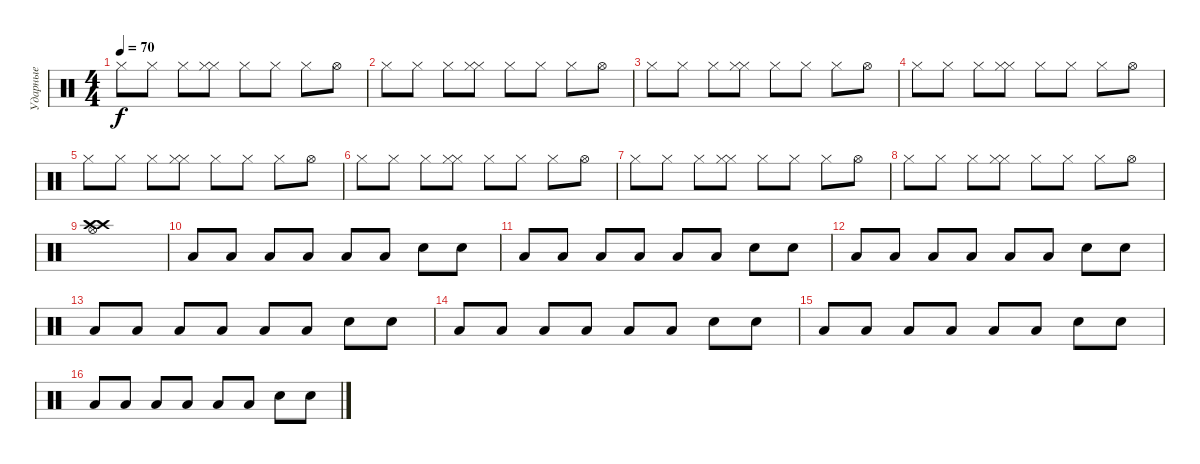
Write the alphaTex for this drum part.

\track ("Ударные" "Ударные") {instrument percussion}
\staff {score}
\articulation defaults
\ts (4 4)
\tempo 70
\clef neutral
\ks c "Hi-Hat (closed)".8{dy f} "Hi-Hat (closed)".8 "Hi-Hat (closed)".8
("Hi-Hat (closed)" "Hi-Hat (closed)").8 "Hi-Hat (closed)".8 "Hi-Hat (closed)".8 "Hi-Hat (closed)".8 "Hi-Hat (open)".8 |
"Hi-Hat (closed)".8 "Hi-Hat (closed)".8 "Hi-Hat (closed)".8 ("Hi-Hat (closed)" "Hi-Hat (closed)").8 "Hi-Hat (closed)".8 "Hi-Hat (closed)".8 "Hi-Hat (closed)".8 "Hi-Hat (open)".8 |
"Hi-Hat (closed)".8 "Hi-Hat (closed)".8 "Hi-Hat (closed)".8 ("Hi-Hat (closed)" "Hi-Hat (closed)").8 "Hi-Hat (closed)".8 "Hi-Hat (closed)".8 "Hi-Hat (closed)".8 "Hi-Hat (open)".8 |
"Hi-Hat (closed)".8 "Hi-Hat (closed)".8 "Hi-Hat (closed)".8 ("Hi-Hat (closed)" "Hi-Hat (closed)").8 "Hi-Hat (closed)".8 "Hi-Hat (closed)".8 "Hi-Hat (closed)".8 "Hi-Hat (open)".8 |
"Hi-Hat (closed)".8 "Hi-Hat (closed)".8 "Hi-Hat (closed)".8 ("Hi-Hat (closed)" "Hi-Hat (closed)").8 "Hi-Hat (closed)".8 "Hi-Hat (closed)".8 "Hi-Hat (closed)".8 "Hi-Hat (open)".8 |
"Hi-Hat (closed)".8 "Hi-Hat (closed)".8 "Hi-Hat (closed)".8 ("Hi-Hat (closed)" "Hi-Hat (closed)").8 "Hi-Hat (closed)".8 "Hi-Hat (closed)".8 "Hi-Hat (closed)".8 "Hi-Hat (open)".8 |
"Hi-Hat (closed)".8 "Hi-Hat (closed)".8 "Hi-Hat (closed)".8 ("Hi-Hat (closed)" "Hi-Hat (closed)").8 "Hi-Hat (closed)".8 "Hi-Hat (closed)".8 "Hi-Hat (closed)".8 "Hi-Hat (open)".8 |
"Hi-Hat (closed)".8 "Hi-Hat (closed)".8 "Hi-Hat (closed)".8 ("Hi-Hat (closed)" "Hi-Hat (closed)").8 "Hi-Hat (closed)".8 "Hi-Hat (closed)".8 "Hi-Hat (closed)".8 "Hi-Hat (open)".8 |
("Hi-Hat (open)" "Crash high (hit)" "Crash high (hit)").1 |
"Low Floor Tom (hit)".8 "Low Floor Tom (hit)".8 "Low Floor Tom (hit)".8 "Low Floor Tom (hit)".8 "Low Floor Tom (hit)".8 "Low Floor Tom (hit)".8 "Electric Snare (hit)".8 "Electric Snare (hit)".8 |
"Low Floor Tom (hit)".8 "Low Floor Tom (hit)".8 "Low Floor Tom (hit)".8 "Low Floor Tom (hit)".8 "Low Floor Tom (hit)".8 "Low Floor Tom (hit)".8 "Electric Snare (hit)".8 "Electric Snare (hit)".8 |
"Low Floor Tom (hit)".8 "Low Floor Tom (hit)".8 "Low Floor Tom (hit)".8 "Low Floor Tom (hit)".8 "Low Floor Tom (hit)".8 "Low Floor Tom (hit)".8 "Electric Snare (hit)".8 "Electric Snare (hit)".8 |
"Low Floor Tom (hit)".8 "Low Floor Tom (hit)".8 "Low Floor Tom (hit)".8 "Low Floor Tom (hit)".8 "Low Floor Tom (hit)".8 "Low Floor Tom (hit)".8 "Electric Snare (hit)".8 "Electric Snare (hit)".8 |
"Low Floor Tom (hit)".8 "Low Floor Tom (hit)".8 "Low Floor Tom (hit)".8 "Low Floor Tom (hit)".8 "Low Floor Tom (hit)".8 "Low Floor Tom (hit)".8 "Electric Snare (hit)".8 "Electric Snare (hit)".8 |
"Low Floor Tom (hit)".8 "Low Floor Tom (hit)".8 "Low Floor Tom (hit)".8 "Low Floor Tom (hit)".8 "Low Floor Tom (hit)".8 "Low Floor Tom (hit)".8 "Electric Snare (hit)".8 "Electric Snare (hit)".8 |
"Low Floor Tom (hit)".8 "Low Floor Tom (hit)".8 "Low Floor Tom (hit)".8 "Low Floor Tom (hit)".8 "Low Floor Tom (hit)".8 "Low Floor Tom (hit)".8 "Electric Snare (hit)".8 "Electric Snare (hit)".8
